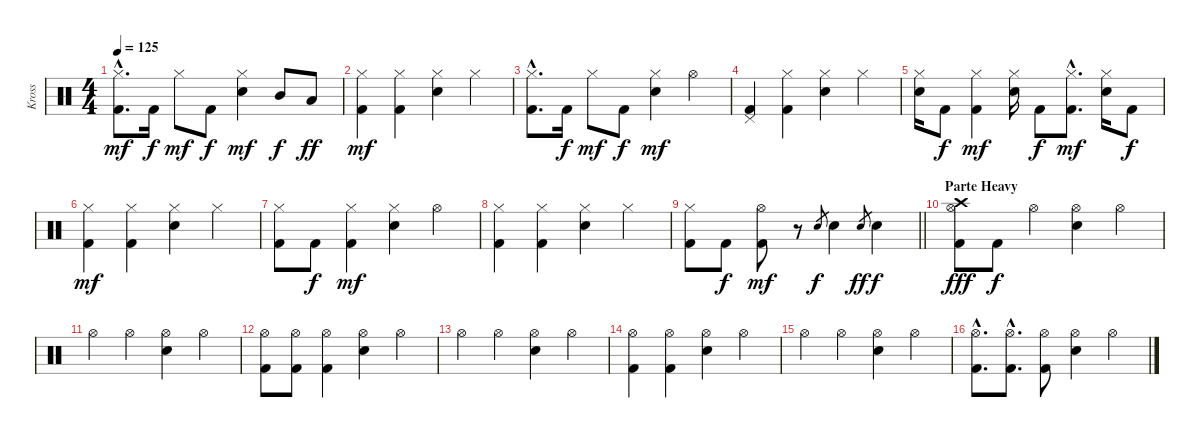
\track ("Kross" "Kross") {instrument percussion}
\staff {score}
\articulation defaults
\ts (4 4)
\tempo 125
\clef neutral
\ks c
("Hi-Hat (closed)"{hac} "Kick (hit) 2"{hac}).8{d dy mf} "Kick (hit) 2".16{dy f} "Hi-Hat (closed)".8{dy mf} "Kick (hit) 2".8{dy f} ("Hi-Hat (closed)" "Snare (hit) 2").4{dy mf} "Mid Tom (hit)".8{dy f} "Low Tom (hit)".8{dy ff} |
("Hi-Hat (closed)" "Kick (hit) 2").4{dy mf} ("Hi-Hat (closed)" "Kick (hit) 2").4 ("Hi-Hat (closed)" "Snare (hit) 2").4 "Hi-Hat (closed)".4 |
("Hi-Hat (closed)"{hac} "Kick (hit) 2"{hac}).8{d} "Kick (hit) 2".16{dy f} "Hi-Hat (closed)".8{dy mf} "Kick (hit) 2".8{dy f} ("Hi-Hat (closed)" "Snare (hit) 2").4{dy mf} "Hi-Hat (open)".4 |
("Pedal Hi-Hat (hit)" "Kick (hit) 2").4 ("Hi-Hat (closed)" "Kick (hit) 2").4 ("Hi-Hat (closed)" "Snare (hit) 2").4 "Hi-Hat (closed)".4 |
("Hi-Hat (closed)" "Snare (hit) 2").16 "Kick (hit) 2".8{dy f} ("Hi-Hat (closed)" "Kick (hit) 2").4{dy mf} ("Hi-Hat (closed)" "Snare (hit) 2").16 "Kick (hit) 2".8{dy f} ("Hi-Hat (closed)"{hac} "Kick (hit) 2"{hac}).8{d dy mf} ("Hi-Hat (closed)" "Snare (hit) 2").16 "Kick (hit) 2".8{dy f} |
("Hi-Hat (closed)" "Kick (hit) 2").4{dy mf} ("Hi-Hat (closed)" "Kick (hit) 2").4 ("Hi-Hat (closed)" "Snare (hit) 2").4 "Hi-Hat (closed)".4 |
("Hi-Hat (closed)" "Kick (hit) 2").8 "Kick (hit) 2".8{dy f} ("Hi-Hat (closed)" "Kick (hit) 2").4{dy mf} ("Hi-Hat (closed)" "Snare (hit) 2").4 "Hi-Hat (open)".4 |
("Hi-Hat (closed)" "Kick (hit) 2").4 ("Hi-Hat (closed)" "Kick (hit) 2").4 ("Hi-Hat (closed)" "Snare (hit) 2").4 "Hi-Hat (closed)".4 |
\barLineRight lightlight
("Hi-Hat (closed)" "Kick (hit) 2").8 "Kick (hit) 2".8{dy f} ("Hi-Hat (open)" "Kick (hit) 2").8{dy mf} r.8 "Snare (hit) 2".8{gr dy f} "Snare (hit) 2".4 "Snare (hit) 2".8{gr dy ff} "Snare (hit) 2".4{dy f} |
\section ("" "Parte Heavy")
("Crash high (hit)" "Hi-Hat (open)" "Kick (hit) 2").8{dy fff} "Kick (hit) 2".8{dy f} "Hi-Hat (open)".4 ("Hi-Hat (open)" "Snare (hit) 2").4 "Hi-Hat (open)".4 |
"Hi-Hat (open)".4 "Hi-Hat (open)".4 ("Hi-Hat (open)" "Snare (hit) 2").4 "Hi-Hat (open)".4 |
("Hi-Hat (open)" "Kick (hit) 2").8 ("Hi-Hat (open)" "Kick (hit) 2").8 ("Hi-Hat (open)" "Kick (hit) 2").4 ("Hi-Hat (open)" "Snare (hit) 2").4 "Hi-Hat (open)".4 |
"Hi-Hat (open)".4 "Hi-Hat (open)".4 ("Hi-Hat (open)" "Snare (hit) 2").4 "Hi-Hat (open)".4 |
("Hi-Hat (open)" "Kick (hit) 2").4 ("Hi-Hat (open)" "Kick (hit) 2").4 ("Hi-Hat (open)" "Snare (hit) 2").4 "Hi-Hat (open)".4 |
"Hi-Hat (open)".4 "Hi-Hat (open)".4 ("Hi-Hat (open)" "Snare (hit) 2").4 "Hi-Hat (open)".4 |
("Hi-Hat (open)"{hac} "Kick (hit) 2"{hac}).8{d} ("Hi-Hat (open)"{hac} "Kick (hit) 2"{hac}).8{d} ("Hi-Hat (open)" "Kick (hit) 2").8 ("Hi-Hat (open)" "Snare (hit) 2").4 "Hi-Hat (open)".4
